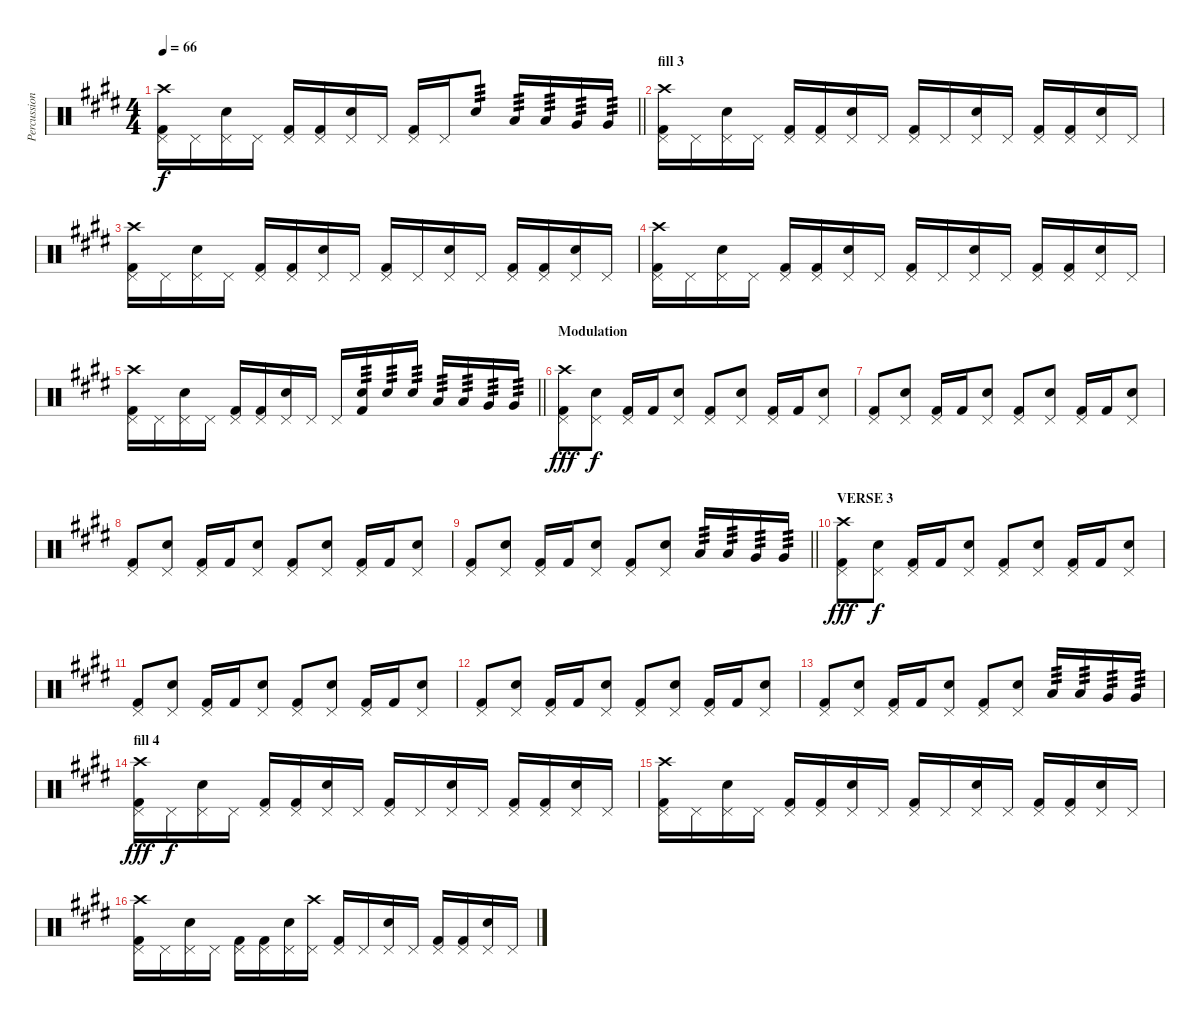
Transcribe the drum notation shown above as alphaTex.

\track ("Percussion" "Percussion") {instrument percussion}
\staff {score}
\articulation defaults
\ts (4 4)
\tempo 66
\clef neutral
\barLineRight lightlight
\ks e
("Crash high (hit)" "Pedal Hi-Hat (hit)" "Kick (hit) 2").16{dy f} "Pedal Hi-Hat (hit)".16 ("Pedal Hi-Hat (hit)" "Electric Snare (hit)").16 "Pedal Hi-Hat (hit)".16 ("Pedal Hi-Hat (hit)" "Kick (hit) 2").16 ("Pedal Hi-Hat (hit)" "Kick (hit) 2").16 ("Pedal Hi-Hat (hit)" "Electric Snare (hit)").16 "Pedal Hi-Hat (hit)".16 ("Pedal Hi-Hat (hit)" "Kick (hit) 2").16 "Pedal Hi-Hat (hit)".16 "Electric Snare (hit)".8{tp 3} "Low Tom (hit)".16{tp 3} "Low Tom (hit)".16{tp 3} "Very Low Tom (hit)".16{tp 3} "Very Low Tom (hit)".16{tp 3} |
\section ("" "fill 3")
("Crash high (hit)" "Pedal Hi-Hat (hit)" "Kick (hit) 2").16 "Pedal Hi-Hat (hit)".16 ("Pedal Hi-Hat (hit)" "Electric Snare (hit)").16 "Pedal Hi-Hat (hit)".16 ("Pedal Hi-Hat (hit)" "Kick (hit) 2").16 ("Pedal Hi-Hat (hit)" "Kick (hit) 2").16 ("Pedal Hi-Hat (hit)" "Electric Snare (hit)").16 "Pedal Hi-Hat (hit)".16 ("Pedal Hi-Hat (hit)" "Kick (hit) 2").16 "Pedal Hi-Hat (hit)".16 ("Pedal Hi-Hat (hit)" "Electric Snare (hit)").16 "Pedal Hi-Hat (hit)".16 ("Pedal Hi-Hat (hit)" "Kick (hit) 2").16 ("Pedal Hi-Hat (hit)" "Kick (hit) 2").16 ("Pedal Hi-Hat (hit)" "Electric Snare (hit)").16 "Pedal Hi-Hat (hit)".16 |
("Crash high (hit)" "Pedal Hi-Hat (hit)" "Kick (hit) 2").16 "Pedal Hi-Hat (hit)".16 ("Pedal Hi-Hat (hit)" "Electric Snare (hit)").16 "Pedal Hi-Hat (hit)".16 ("Pedal Hi-Hat (hit)" "Kick (hit) 2").16 ("Pedal Hi-Hat (hit)" "Kick (hit) 2").16 ("Pedal Hi-Hat (hit)" "Electric Snare (hit)").16 "Pedal Hi-Hat (hit)".16 ("Pedal Hi-Hat (hit)" "Kick (hit) 2").16 "Pedal Hi-Hat (hit)".16 ("Pedal Hi-Hat (hit)" "Electric Snare (hit)").16 "Pedal Hi-Hat (hit)".16 ("Pedal Hi-Hat (hit)" "Kick (hit) 2").16 ("Pedal Hi-Hat (hit)" "Kick (hit) 2").16 ("Pedal Hi-Hat (hit)" "Electric Snare (hit)").16 "Pedal Hi-Hat (hit)".16 |
("Crash high (hit)" "Pedal Hi-Hat (hit)" "Kick (hit) 2").16 "Pedal Hi-Hat (hit)".16 ("Pedal Hi-Hat (hit)" "Electric Snare (hit)").16 "Pedal Hi-Hat (hit)".16 ("Pedal Hi-Hat (hit)" "Kick (hit) 2").16 ("Pedal Hi-Hat (hit)" "Kick (hit) 2").16 ("Pedal Hi-Hat (hit)" "Electric Snare (hit)").16 "Pedal Hi-Hat (hit)".16 ("Pedal Hi-Hat (hit)" "Kick (hit) 2").16 "Pedal Hi-Hat (hit)".16 ("Pedal Hi-Hat (hit)" "Electric Snare (hit)").16 "Pedal Hi-Hat (hit)".16 ("Pedal Hi-Hat (hit)" "Kick (hit) 2").16 ("Pedal Hi-Hat (hit)" "Kick (hit) 2").16 ("Pedal Hi-Hat (hit)" "Electric Snare (hit)").16 "Pedal Hi-Hat (hit)".16 |
\barLineRight lightlight
("Crash high (hit)" "Pedal Hi-Hat (hit)" "Kick (hit) 2").16 "Pedal Hi-Hat (hit)".16 ("Pedal Hi-Hat (hit)" "Electric Snare (hit)").16 "Pedal Hi-Hat (hit)".16 ("Pedal Hi-Hat (hit)" "Kick (hit) 2").16 ("Pedal Hi-Hat (hit)" "Kick (hit) 2").16 ("Pedal Hi-Hat (hit)" "Electric Snare (hit)").16 "Pedal Hi-Hat (hit)".16 "Pedal Hi-Hat (hit)".16 ("Electric Snare (hit)" "Kick (hit) 2").16{tp 3} "Electric Snare (hit)".16{tp 3} "Electric Snare (hit)".16{tp 3} "Low Tom (hit)".16{tp 3} "Low Tom (hit)".16{tp 3} "Very Low Tom (hit)".16{tp 3} "Very Low Tom (hit)".16{tp 3} |
\section ("" "Modulation")
("Crash high (hit)" "Pedal Hi-Hat (hit)" "Kick (hit) 2").8{dy fff} ("Pedal Hi-Hat (hit)" "Electric Snare (hit)").8{dy f} ("Pedal Hi-Hat (hit)" "Kick (hit) 2").16 "Kick (hit) 2".16 ("Pedal Hi-Hat (hit)" "Electric Snare (hit)").8 ("Pedal Hi-Hat (hit)" "Kick (hit) 2").8 ("Pedal Hi-Hat (hit)" "Electric Snare (hit)").8 ("Pedal Hi-Hat (hit)" "Kick (hit) 2").16 "Kick (hit) 2".16 ("Pedal Hi-Hat (hit)" "Electric Snare (hit)").8 |
("Pedal Hi-Hat (hit)" "Kick (hit) 2").8 ("Pedal Hi-Hat (hit)" "Electric Snare (hit)").8 ("Pedal Hi-Hat (hit)" "Kick (hit) 2").16 "Kick (hit) 2".16 ("Pedal Hi-Hat (hit)" "Electric Snare (hit)").8 ("Pedal Hi-Hat (hit)" "Kick (hit) 2").8 ("Pedal Hi-Hat (hit)" "Electric Snare (hit)").8 ("Pedal Hi-Hat (hit)" "Kick (hit) 2").16 "Kick (hit) 2".16 ("Pedal Hi-Hat (hit)" "Electric Snare (hit)").8 |
("Pedal Hi-Hat (hit)" "Kick (hit) 2").8 ("Pedal Hi-Hat (hit)" "Electric Snare (hit)").8 ("Pedal Hi-Hat (hit)" "Kick (hit) 2").16 "Kick (hit) 2".16 ("Pedal Hi-Hat (hit)" "Electric Snare (hit)").8 ("Pedal Hi-Hat (hit)" "Kick (hit) 2").8 ("Pedal Hi-Hat (hit)" "Electric Snare (hit)").8 ("Pedal Hi-Hat (hit)" "Kick (hit) 2").16 "Kick (hit) 2".16 ("Pedal Hi-Hat (hit)" "Electric Snare (hit)").8 |
\barLineRight lightlight
("Pedal Hi-Hat (hit)" "Kick (hit) 2").8 ("Pedal Hi-Hat (hit)" "Electric Snare (hit)").8 ("Pedal Hi-Hat (hit)" "Kick (hit) 2").16 "Kick (hit) 2".16 ("Pedal Hi-Hat (hit)" "Electric Snare (hit)").8 ("Pedal Hi-Hat (hit)" "Kick (hit) 2").8 ("Pedal Hi-Hat (hit)" "Electric Snare (hit)").8 "Low Tom (hit)".16{tp 3} "Low Tom (hit)".16{tp 3} "Very Low Tom (hit)".16{tp 3} "Very Low Tom (hit)".16{tp 3} |
\section ("" "VERSE 3")
("Crash high (hit)" "Pedal Hi-Hat (hit)" "Kick (hit) 2").8{dy fff} ("Pedal Hi-Hat (hit)" "Electric Snare (hit)").8{dy f} ("Pedal Hi-Hat (hit)" "Kick (hit) 2").16 "Kick (hit) 2".16 ("Pedal Hi-Hat (hit)" "Electric Snare (hit)").8 ("Pedal Hi-Hat (hit)" "Kick (hit) 2").8 ("Pedal Hi-Hat (hit)" "Electric Snare (hit)").8 ("Pedal Hi-Hat (hit)" "Kick (hit) 2").16 "Kick (hit) 2".16 ("Pedal Hi-Hat (hit)" "Electric Snare (hit)").8 |
("Pedal Hi-Hat (hit)" "Kick (hit) 2").8 ("Pedal Hi-Hat (hit)" "Electric Snare (hit)").8 ("Pedal Hi-Hat (hit)" "Kick (hit) 2").16 "Kick (hit) 2".16 ("Pedal Hi-Hat (hit)" "Electric Snare (hit)").8 ("Pedal Hi-Hat (hit)" "Kick (hit) 2").8 ("Pedal Hi-Hat (hit)" "Electric Snare (hit)").8 ("Pedal Hi-Hat (hit)" "Kick (hit) 2").16 "Kick (hit) 2".16 ("Pedal Hi-Hat (hit)" "Electric Snare (hit)").8 |
("Pedal Hi-Hat (hit)" "Kick (hit) 2").8 ("Pedal Hi-Hat (hit)" "Electric Snare (hit)").8 ("Pedal Hi-Hat (hit)" "Kick (hit) 2").16 "Kick (hit) 2".16 ("Pedal Hi-Hat (hit)" "Electric Snare (hit)").8 ("Pedal Hi-Hat (hit)" "Kick (hit) 2").8 ("Pedal Hi-Hat (hit)" "Electric Snare (hit)").8 ("Pedal Hi-Hat (hit)" "Kick (hit) 2").16 "Kick (hit) 2".16 ("Pedal Hi-Hat (hit)" "Electric Snare (hit)").8 |
("Pedal Hi-Hat (hit)" "Kick (hit) 2").8 ("Pedal Hi-Hat (hit)" "Electric Snare (hit)").8 ("Pedal Hi-Hat (hit)" "Kick (hit) 2").16 "Kick (hit) 2".16 ("Pedal Hi-Hat (hit)" "Electric Snare (hit)").8 ("Pedal Hi-Hat (hit)" "Kick (hit) 2").8 ("Pedal Hi-Hat (hit)" "Electric Snare (hit)").8 "Low Tom (hit)".16{tp 3} "Low Tom (hit)".16{tp 3} "Very Low Tom (hit)".16{tp 3} "Very Low Tom (hit)".16{tp 3} |
\section ("" "fill 4")
("Crash high (hit)" "Pedal Hi-Hat (hit)" "Kick (hit) 2").16{dy fff} "Pedal Hi-Hat (hit)".16{dy f} ("Pedal Hi-Hat (hit)" "Electric Snare (hit)").16 "Pedal Hi-Hat (hit)".16 ("Pedal Hi-Hat (hit)" "Kick (hit) 2").16 ("Pedal Hi-Hat (hit)" "Kick (hit) 2").16 ("Pedal Hi-Hat (hit)" "Electric Snare (hit)").16 "Pedal Hi-Hat (hit)".16 ("Pedal Hi-Hat (hit)" "Kick (hit) 2").16 "Pedal Hi-Hat (hit)".16 ("Pedal Hi-Hat (hit)" "Electric Snare (hit)").16 "Pedal Hi-Hat (hit)".16 ("Pedal Hi-Hat (hit)" "Kick (hit) 2").16 ("Pedal Hi-Hat (hit)" "Kick (hit) 2").16 ("Pedal Hi-Hat (hit)" "Electric Snare (hit)").16 "Pedal Hi-Hat (hit)".16 |
("Crash high (hit)" "Pedal Hi-Hat (hit)" "Kick (hit) 2").16 "Pedal Hi-Hat (hit)".16 ("Pedal Hi-Hat (hit)" "Electric Snare (hit)").16 "Pedal Hi-Hat (hit)".16 ("Pedal Hi-Hat (hit)" "Kick (hit) 2").16 ("Pedal Hi-Hat (hit)" "Kick (hit) 2").16 ("Pedal Hi-Hat (hit)" "Electric Snare (hit)").16 "Pedal Hi-Hat (hit)".16 ("Pedal Hi-Hat (hit)" "Kick (hit) 2").16 "Pedal Hi-Hat (hit)".16 ("Pedal Hi-Hat (hit)" "Electric Snare (hit)").16 "Pedal Hi-Hat (hit)".16 ("Pedal Hi-Hat (hit)" "Kick (hit) 2").16 ("Pedal Hi-Hat (hit)" "Kick (hit) 2").16 ("Pedal Hi-Hat (hit)" "Electric Snare (hit)").16 "Pedal Hi-Hat (hit)".16 |
("Crash high (hit)" "Pedal Hi-Hat (hit)" "Kick (hit) 2").16 "Pedal Hi-Hat (hit)".16 ("Pedal Hi-Hat (hit)" "Electric Snare (hit)").16 "Pedal Hi-Hat (hit)".16 ("Pedal Hi-Hat (hit)" "Kick (hit) 2").16 ("Pedal Hi-Hat (hit)" "Kick (hit) 2").16 ("Pedal Hi-Hat (hit)" "Electric Snare (hit)").16 ("Crash high (hit)" "Pedal Hi-Hat (hit)").16 ("Pedal Hi-Hat (hit)" "Kick (hit) 2").16 "Pedal Hi-Hat (hit)".16 ("Pedal Hi-Hat (hit)" "Electric Snare (hit)").16 "Pedal Hi-Hat (hit)".16 ("Pedal Hi-Hat (hit)" "Kick (hit) 2").16 ("Pedal Hi-Hat (hit)" "Kick (hit) 2").16 ("Pedal Hi-Hat (hit)" "Electric Snare (hit)").16 "Pedal Hi-Hat (hit)".16
